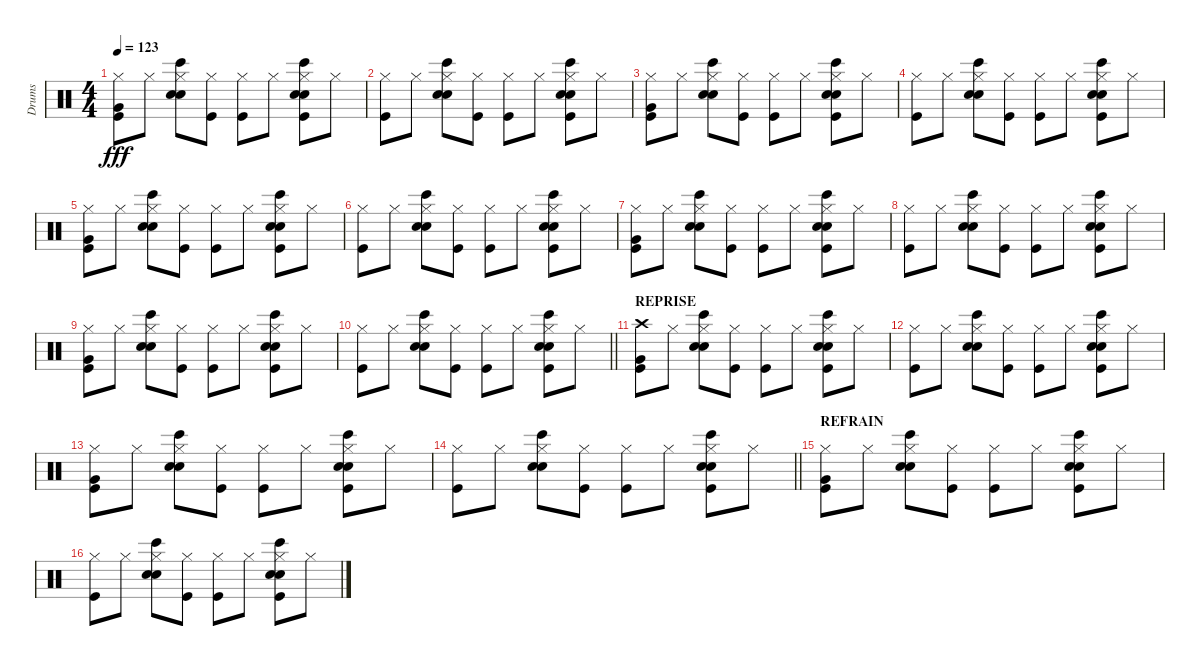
\track ("Drums" "Drums") {instrument percussion}
\staff {score}
\articulation defaults
\ts (4 4)
\tempo 123
\clef neutral
\ks c
("Kick (hit)" "Hi-Hat (closed)" "Very Low Tom (hit)").8{dy fff} "Hi-Hat (closed)".8 ("Hi-Hat (closed)" "Bongo High (hit)" "Hand Clap (hit)" "Electric Snare (hit)").8 ("Kick (hit)" "Hi-Hat (closed)").8 ("Hi-Hat (closed)" "Kick (hit)").8 "Hi-Hat (closed)".8 ("Hi-Hat (closed)" "Kick (hit)" "Electric Snare (hit)" "Hand Clap (hit)" "Bongo High (hit)").8 "Hi-Hat (closed)".8 |
("Hi-Hat (closed)" "Kick (hit)").8 "Hi-Hat (closed)".8 ("Hi-Hat (closed)" "Electric Snare (hit)" "Bongo High (hit)" "Hand Clap (hit)").8 ("Hi-Hat (closed)" "Kick (hit)").8 ("Hi-Hat (closed)" "Kick (hit)").8 "Hi-Hat (closed)".8 ("Hi-Hat (closed)" "Kick (hit)" "Electric Snare (hit)" "Bongo High (hit)" "Hand Clap (hit)").8 "Hi-Hat (closed)".8 |
("Kick (hit)" "Hi-Hat (closed)" "Very Low Tom (hit)").8 "Hi-Hat (closed)".8 ("Hi-Hat (closed)" "Bongo High (hit)" "Hand Clap (hit)" "Electric Snare (hit)").8 ("Kick (hit)" "Hi-Hat (closed)").8 ("Hi-Hat (closed)" "Kick (hit)").8 "Hi-Hat (closed)".8 ("Hi-Hat (closed)" "Kick (hit)" "Electric Snare (hit)" "Hand Clap (hit)" "Bongo High (hit)").8 "Hi-Hat (closed)".8 |
("Hi-Hat (closed)" "Kick (hit)").8 "Hi-Hat (closed)".8 ("Hi-Hat (closed)" "Electric Snare (hit)" "Bongo High (hit)" "Hand Clap (hit)").8 ("Hi-Hat (closed)" "Kick (hit)").8 ("Hi-Hat (closed)" "Kick (hit)").8 "Hi-Hat (closed)".8 ("Hi-Hat (closed)" "Kick (hit)" "Electric Snare (hit)" "Bongo High (hit)" "Hand Clap (hit)").8 "Hi-Hat (closed)".8 |
("Kick (hit)" "Hi-Hat (closed)" "Very Low Tom (hit)").8 "Hi-Hat (closed)".8 ("Hi-Hat (closed)" "Bongo High (hit)" "Hand Clap (hit)" "Electric Snare (hit)").8 ("Kick (hit)" "Hi-Hat (closed)").8 ("Hi-Hat (closed)" "Kick (hit)").8 "Hi-Hat (closed)".8 ("Hi-Hat (closed)" "Kick (hit)" "Electric Snare (hit)" "Hand Clap (hit)" "Bongo High (hit)").8 "Hi-Hat (closed)".8 |
("Hi-Hat (closed)" "Kick (hit)").8 "Hi-Hat (closed)".8 ("Hi-Hat (closed)" "Electric Snare (hit)" "Bongo High (hit)" "Hand Clap (hit)").8 ("Hi-Hat (closed)" "Kick (hit)").8 ("Hi-Hat (closed)" "Kick (hit)").8 "Hi-Hat (closed)".8 ("Hi-Hat (closed)" "Kick (hit)" "Electric Snare (hit)" "Bongo High (hit)" "Hand Clap (hit)").8 "Hi-Hat (closed)".8 |
("Kick (hit)" "Hi-Hat (closed)" "Very Low Tom (hit)").8 "Hi-Hat (closed)".8 ("Hi-Hat (closed)" "Bongo High (hit)" "Hand Clap (hit)" "Electric Snare (hit)").8 ("Kick (hit)" "Hi-Hat (closed)").8 ("Hi-Hat (closed)" "Kick (hit)").8 "Hi-Hat (closed)".8 ("Hi-Hat (closed)" "Kick (hit)" "Electric Snare (hit)" "Hand Clap (hit)" "Bongo High (hit)").8 "Hi-Hat (closed)".8 |
("Hi-Hat (closed)" "Kick (hit)").8 "Hi-Hat (closed)".8 ("Hi-Hat (closed)" "Electric Snare (hit)" "Bongo High (hit)" "Hand Clap (hit)").8 ("Hi-Hat (closed)" "Kick (hit)").8 ("Hi-Hat (closed)" "Kick (hit)").8 "Hi-Hat (closed)".8 ("Hi-Hat (closed)" "Kick (hit)" "Electric Snare (hit)" "Bongo High (hit)" "Hand Clap (hit)").8 "Hi-Hat (closed)".8 |
("Kick (hit)" "Hi-Hat (closed)" "Very Low Tom (hit)").8 "Hi-Hat (closed)".8 ("Hi-Hat (closed)" "Bongo High (hit)" "Hand Clap (hit)" "Electric Snare (hit)").8 ("Kick (hit)" "Hi-Hat (closed)").8 ("Hi-Hat (closed)" "Kick (hit)").8 "Hi-Hat (closed)".8 ("Hi-Hat (closed)" "Kick (hit)" "Electric Snare (hit)" "Hand Clap (hit)" "Bongo High (hit)").8 "Hi-Hat (closed)".8 |
\barLineRight lightlight
("Hi-Hat (closed)" "Kick (hit)").8 "Hi-Hat (closed)".8 ("Hi-Hat (closed)" "Electric Snare (hit)" "Bongo High (hit)" "Hand Clap (hit)").8 ("Hi-Hat (closed)" "Kick (hit)").8 ("Hi-Hat (closed)" "Kick (hit)").8 "Hi-Hat (closed)".8 ("Hi-Hat (closed)" "Kick (hit)" "Electric Snare (hit)" "Bongo High (hit)" "Hand Clap (hit)").8 "Hi-Hat (closed)".8 |
\section ("" "REPRISE")
("Kick (hit)" "Crash high (hit)" "Very Low Tom (hit)").8 "Hi-Hat (closed)".8 ("Hi-Hat (closed)" "Bongo High (hit)" "Hand Clap (hit)" "Electric Snare (hit)").8 ("Kick (hit)" "Hi-Hat (closed)").8 ("Hi-Hat (closed)" "Kick (hit)").8 "Hi-Hat (closed)".8 ("Hi-Hat (closed)" "Kick (hit)" "Electric Snare (hit)" "Hand Clap (hit)" "Bongo High (hit)").8 "Hi-Hat (closed)".8 |
("Hi-Hat (closed)" "Kick (hit)").8 "Hi-Hat (closed)".8 ("Hi-Hat (closed)" "Electric Snare (hit)" "Bongo High (hit)" "Hand Clap (hit)").8 ("Hi-Hat (closed)" "Kick (hit)").8 ("Hi-Hat (closed)" "Kick (hit)").8 "Hi-Hat (closed)".8 ("Hi-Hat (closed)" "Kick (hit)" "Electric Snare (hit)" "Bongo High (hit)" "Hand Clap (hit)").8 "Hi-Hat (closed)".8 |
("Kick (hit)" "Hi-Hat (closed)" "Very Low Tom (hit)").8 "Hi-Hat (closed)".8 ("Hi-Hat (closed)" "Bongo High (hit)" "Hand Clap (hit)" "Electric Snare (hit)").8 ("Kick (hit)" "Hi-Hat (closed)").8 ("Hi-Hat (closed)" "Kick (hit)").8 "Hi-Hat (closed)".8 ("Hi-Hat (closed)" "Kick (hit)" "Electric Snare (hit)" "Hand Clap (hit)" "Bongo High (hit)").8 "Hi-Hat (closed)".8 |
\barLineRight lightlight
("Hi-Hat (closed)" "Kick (hit)").8 "Hi-Hat (closed)".8 ("Hi-Hat (closed)" "Electric Snare (hit)" "Bongo High (hit)" "Hand Clap (hit)").8 ("Hi-Hat (closed)" "Kick (hit)").8 ("Hi-Hat (closed)" "Kick (hit)").8 "Hi-Hat (closed)".8 ("Hi-Hat (closed)" "Kick (hit)" "Electric Snare (hit)" "Bongo High (hit)" "Hand Clap (hit)").8 "Hi-Hat (closed)".8 |
\section ("" "REFRAIN")
("Kick (hit)" "Hi-Hat (closed)" "Very Low Tom (hit)").8 "Hi-Hat (closed)".8 ("Hi-Hat (closed)" "Bongo High (hit)" "Hand Clap (hit)" "Electric Snare (hit)").8 ("Kick (hit)" "Hi-Hat (closed)").8 ("Hi-Hat (closed)" "Kick (hit)").8 "Hi-Hat (closed)".8 ("Hi-Hat (closed)" "Kick (hit)" "Electric Snare (hit)" "Hand Clap (hit)" "Bongo High (hit)").8 "Hi-Hat (closed)".8 |
("Hi-Hat (closed)" "Kick (hit)").8 "Hi-Hat (closed)".8 ("Hi-Hat (closed)" "Electric Snare (hit)" "Bongo High (hit)" "Hand Clap (hit)").8 ("Hi-Hat (closed)" "Kick (hit)").8 ("Hi-Hat (closed)" "Kick (hit)").8 "Hi-Hat (closed)".8 ("Hi-Hat (closed)" "Kick (hit)" "Electric Snare (hit)" "Bongo High (hit)" "Hand Clap (hit)").8 "Hi-Hat (closed)".8
